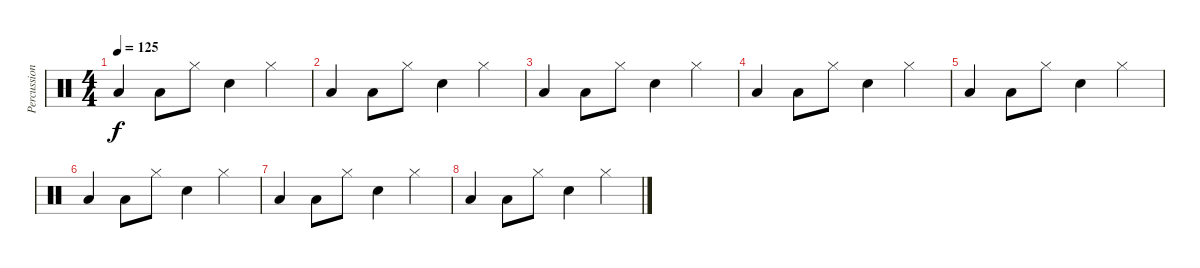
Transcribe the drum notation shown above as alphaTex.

\track ("Percussion" "Percussion") {instrument percussion}
\staff {score}
\articulation defaults
\ts (4 4)
\tempo 125
\clef neutral
\ks c "Low Floor Tom (hit)".4{dy f} "Low Floor Tom (hit)".8 "Hi-Hat (closed)".8 "Hand Clap (hit)".4 "Hi-Hat (closed)".4
|
"Low Floor Tom (hit)".4 "Low Floor Tom (hit)".8 "Hi-Hat (closed)".8 "Hand Clap (hit)".4 "Hi-Hat (closed)".4 |
"Low Floor Tom (hit)".4 "Low Floor Tom (hit)".8 "Hi-Hat (closed)".8 "Hand Clap (hit)".4 "Hi-Hat (closed)".4 |
"Low Floor Tom (hit)".4 "Low Floor Tom (hit)".8 "Hi-Hat (closed)".8 "Hand Clap (hit)".4 "Hi-Hat (closed)".4 |
"Low Floor Tom (hit)".4 "Low Floor Tom (hit)".8 "Hi-Hat (closed)".8 "Hand Clap (hit)".4 "Hi-Hat (closed)".4 |
"Low Floor Tom (hit)".4 "Low Floor Tom (hit)".8 "Hi-Hat (closed)".8 "Hand Clap (hit)".4 "Hi-Hat (closed)".4 |
"Low Floor Tom (hit)".4 "Low Floor Tom (hit)".8 "Hi-Hat (closed)".8 "Hand Clap (hit)".4 "Hi-Hat (closed)".4 |
"Low Floor Tom (hit)".4 "Low Floor Tom (hit)".8 "Hi-Hat (closed)".8 "Hand Clap (hit)".4 "Hi-Hat (closed)".4
